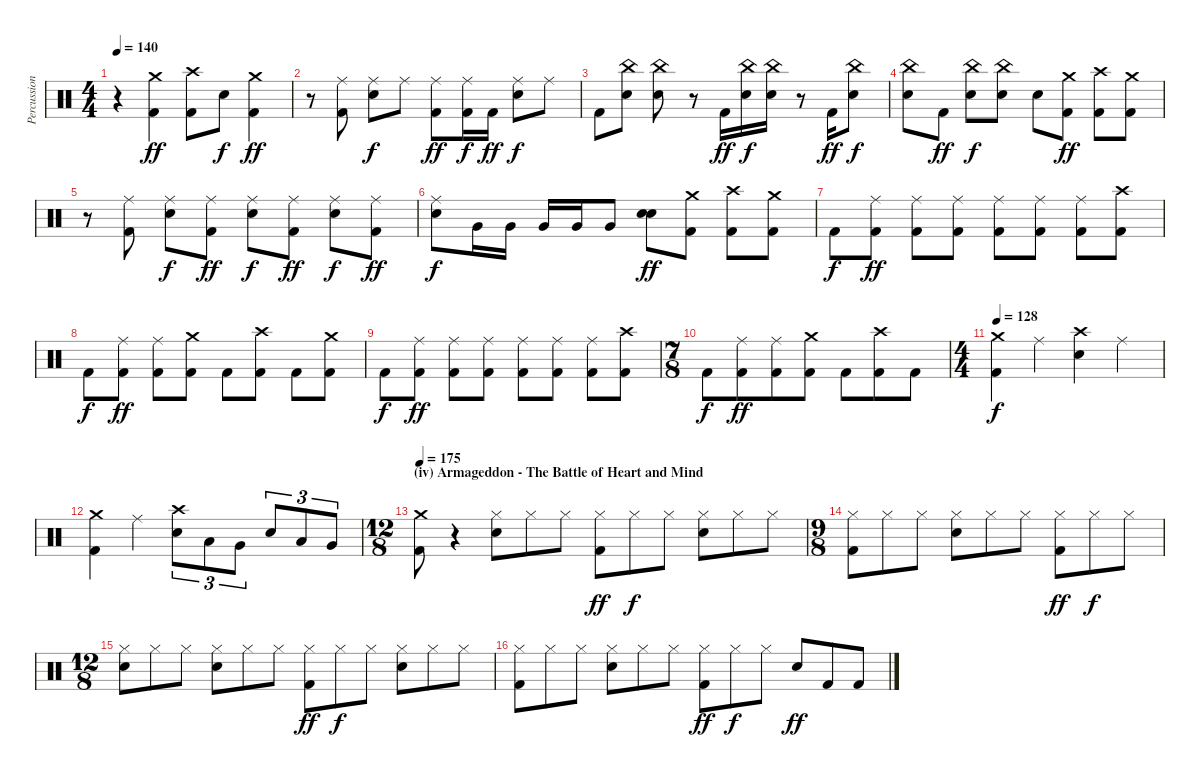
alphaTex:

\track ("Percussion" "Percussion") {instrument percussion}
\staff {score}
\articulation defaults
\ts (4 4)
\tempo 140
\clef neutral
\ks c
r.4{dy ff} ("Kick (hit) 2" "Crash medium (hit)").4 ("Kick (hit) 2" "Crash high (hit)").8 "Snare (hit) 2".8{dy f} ("Kick (hit) 2" "Crash medium (hit)").4{dy ff} |
r.8 ("Kick (hit) 2" "Ride (middle)").8 ("Snare (hit) 2" "Ride (middle)").8{dy f} "Ride (middle)".8 ("Kick (hit) 2" "Ride (middle)").8{dy ff} ("Kick (hit) 2" "Ride (middle)").16{dy f} "Kick (hit) 2".16{dy ff} ("Snare (hit) 2" "Ride (middle)").8{dy f} "Ride (middle)".8 |
"Kick (hit) 2".8 ("Snare (hit) 2" "China (hit)").8 ("Snare (hit) 2" "China (hit)").8 r.8 "Kick (hit) 2".16{dy ff} ("Snare (hit) 2" "China (hit)").16{dy f} ("Snare (hit) 2" "China (hit)").16 r.8 "Kick (hit) 2".16{dy ff} ("Snare (hit) 2" "China (hit)").8{dy f} |
("Snare (hit) 2" "China (hit)").8 "Kick (hit) 2".8{dy ff} ("Snare (hit) 2" "China (hit)").8{dy f} ("Snare (hit) 2" "China (hit)").8 "Snare (hit) 2".8 ("Kick (hit) 2" "Crash medium (hit)").8{dy ff} ("Kick (hit) 2" "Crash high (hit)").8 ("Kick (hit) 2" "Crash medium (hit)").8 |
r.8 ("Kick (hit) 2" "Ride (middle)").8 ("Snare (hit) 2" "Ride (middle)").8{dy f} ("Kick (hit) 2" "Ride (middle)").8{dy ff} ("Snare (hit) 2" "Ride (middle)").8{dy f} ("Kick (hit) 2" "Ride (middle)").8{dy ff} ("Snare (hit) 2" "Ride (middle)").8{dy f} ("Kick (hit) 2" "Ride (middle)").8{dy ff} |
("Snare (hit) 2" "Ride (middle)").8{dy f} "Very Low Tom (hit)".16 "Very Low Tom (hit)".16 "Very Low Tom (hit)".16 "Very Low Tom (hit)".16 "Very Low Tom (hit)".8 ("Snare (hit) 2" "Snare (hit) 2").8{dy ff} ("Kick (hit) 2" "Crash medium (hit)").8 ("Kick (hit) 2" "Crash high (hit)").8 ("Kick (hit) 2" "Crash medium (hit)").8 |
"Kick (hit) 2".8{dy f} ("Kick (hit) 2" "Ride (middle)").8{dy ff} ("Kick (hit) 2" "Ride (middle)").8 ("Kick (hit) 2" "Ride (middle)").8 ("Kick (hit) 2" "Ride (middle)").8 ("Kick (hit) 2" "Ride (middle)").8 ("Kick (hit) 2" "Ride (middle)").8 ("Kick (hit) 2" "Crash high (hit)").8 |
"Kick (hit) 2".8{dy f} ("Kick (hit) 2" "Ride (middle)").8{dy ff} ("Kick (hit) 2" "Ride (middle)").8 ("Kick (hit) 2" "Crash medium (hit)").8 "Kick (hit) 2".8 ("Kick (hit) 2" "Crash high (hit)").8 "Kick (hit) 2".8 ("Kick (hit) 2" "Crash medium (hit)").8 |
"Kick (hit) 2".8{dy f} ("Kick (hit) 2" "Ride (middle)").8{dy ff} ("Kick (hit) 2" "Ride (middle)").8 ("Kick (hit) 2" "Ride (middle)").8 ("Kick (hit) 2" "Ride (middle)").8 ("Kick (hit) 2" "Ride (middle)").8 ("Kick (hit) 2" "Ride (middle)").8 ("Kick (hit) 2" "Crash high (hit)").8 |
\ts (7 8)
"Kick (hit) 2".8{dy f} ("Kick (hit) 2" "Ride (middle)").8{dy ff} ("Kick (hit) 2" "Ride (middle)").8 ("Kick (hit) 2" "Crash medium (hit)").8 "Kick (hit) 2".8 ("Kick (hit) 2" "Crash high (hit)").8 "Kick (hit) 2".8 |
\ts (4 4)
\tempo 128
("Kick (hit) 2" "Crash medium (hit)").4{dy f} "Ride (middle)".4 ("Snare (hit) 2" "Crash high (hit)").4 "Ride (middle)".4 |
("Kick (hit) 2" "Crash medium (hit)").4 "Ride (middle)".4 ("Snare (hit) 2" "Crash high (hit)").8{tu (3 2)} "Low Tom (hit)".8{tu (3 2)} "Very Low Tom (hit)".8{tu (3 2)} "Snare (hit) 2".8{tu (3 2)} "Low Tom (hit)".8{tu (3 2)} "Very Low Tom (hit)".8{tu (3 2)} |
\ts (12 8)
\section ("" "(iv) Armageddon - The Battle of Heart and Mind")
\tempo 175
("Kick (hit) 2" "Crash medium (hit)").8 r.4 ("Snare (hit) 2" "Hi-Hat (closed)").8 "Hi-Hat (closed)".8 "Hi-Hat (closed)".8 ("Kick (hit) 2" "Hi-Hat (closed)").8{dy ff} "Hi-Hat (closed)".8{dy f} "Hi-Hat (closed)".8 ("Snare (hit) 2" "Hi-Hat (closed)").8 "Hi-Hat (closed)".8 "Hi-Hat (closed)".8 |
\ts (9 8)
("Kick (hit) 2" "Hi-Hat (closed)").8 "Hi-Hat (closed)".8 "Hi-Hat (closed)".8 ("Snare (hit) 2" "Hi-Hat (closed)").8 "Hi-Hat (closed)".8 "Hi-Hat (closed)".8 ("Kick (hit) 2" "Hi-Hat (closed)").8{dy ff} "Hi-Hat (closed)".8{dy f} "Hi-Hat (closed)".8 |
\ts (12 8)
("Snare (hit) 2" "Hi-Hat (closed)").8 "Hi-Hat (closed)".8 "Hi-Hat (closed)".8 ("Snare (hit) 2" "Hi-Hat (closed)").8 "Hi-Hat (closed)".8 "Hi-Hat (closed)".8 ("Kick (hit) 2" "Hi-Hat (closed)").8{dy ff} "Hi-Hat (closed)".8{dy f} "Hi-Hat (closed)".8 ("Snare (hit) 2" "Hi-Hat (closed)").8 "Hi-Hat (closed)".8 "Hi-Hat (closed)".8 |
("Kick (hit) 2" "Hi-Hat (closed)").8 "Hi-Hat (closed)".8 "Hi-Hat (closed)".8 ("Snare (hit) 2" "Hi-Hat (closed)").8 "Hi-Hat (closed)".8 "Hi-Hat (closed)".8 ("Kick (hit) 2" "Hi-Hat (closed)").8{dy ff} "Hi-Hat (closed)".8{dy f} "Hi-Hat (closed)".8 "Snare (hit) 2".8{dy ff} "Kick (hit) 2".8 "Kick (hit) 2".8
